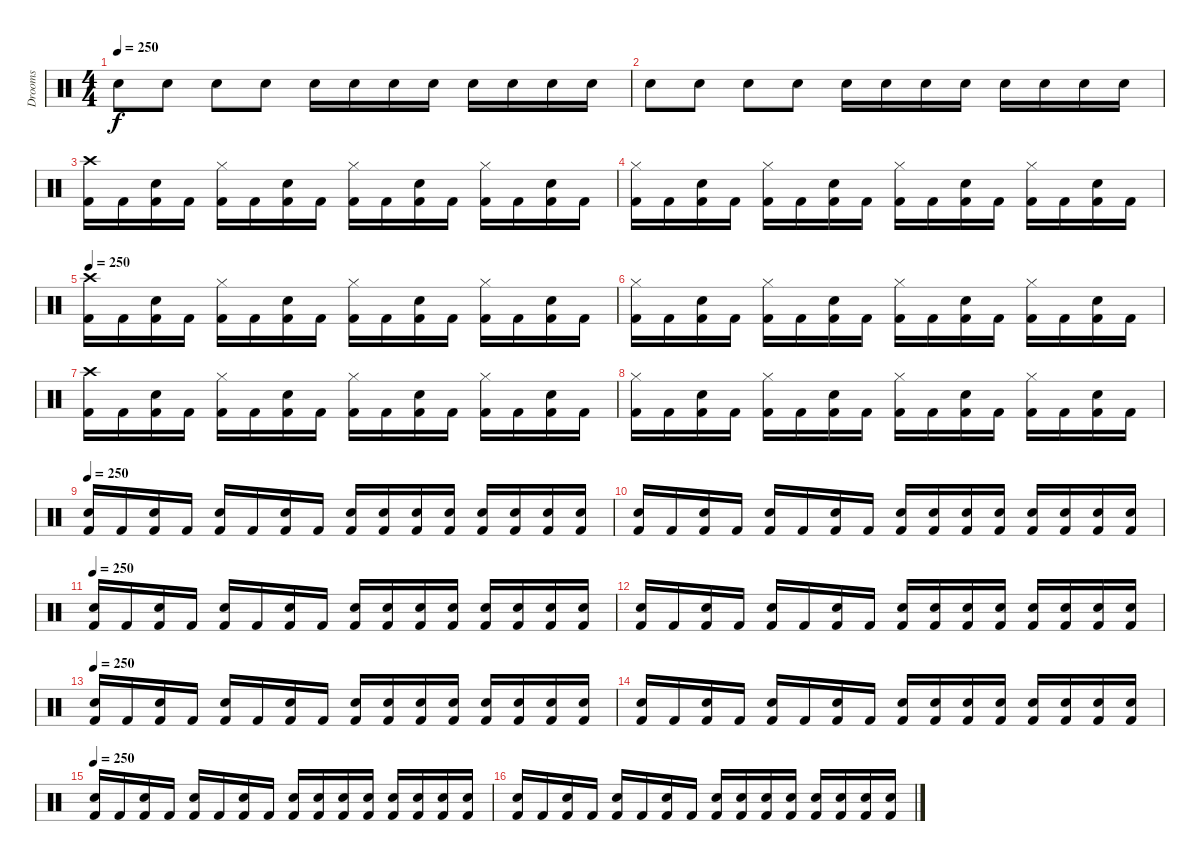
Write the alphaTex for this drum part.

\track ("Drooms" "Drooms") {instrument percussion}
\staff {score}
\articulation defaults
\ts (4 4)
\tempo 250
\clef neutral
\ks c "Snare (hit) 2".8{dy f} "Snare (hit) 2".8 "Snare (hit) 2".8 "Snare (hit) 2".8 "Snare (hit) 2".16 "Snare (hit) 2".16 "Snare (hit) 2".16 "Snare (hit) 2".16 "Snare (hit) 2".16 "Snare (hit) 2".16 "Snare (hit) 2".16 "Snare (hit) 2".16
|
"Snare (hit) 2".8 "Snare (hit) 2".8 "Snare (hit) 2".8 "Snare (hit) 2".8 "Snare (hit) 2".16 "Snare (hit) 2".16 "Snare (hit) 2".16 "Snare (hit) 2".16 "Snare (hit) 2".16 "Snare (hit) 2".16 "Snare (hit) 2".16 "Snare (hit) 2".16 |
("Kick (hit) 2" "Crash high (hit)").16 "Kick (hit) 2".16 ("Kick (hit) 2" "Snare (hit) 2").16 "Kick (hit) 2".16 ("Kick (hit) 2" "Hi-Hat (closed)").16 "Kick (hit) 2".16 ("Kick (hit) 2" "Snare (hit) 2").16 "Kick (hit) 2".16 ("Kick (hit) 2" "Hi-Hat (closed)").16 "Kick (hit) 2".16 ("Kick (hit) 2" "Snare (hit) 2").16 "Kick (hit) 2".16 ("Kick (hit) 2" "Hi-Hat (closed)").16 "Kick (hit) 2".16 ("Kick (hit) 2" "Snare (hit) 2").16 "Kick (hit) 2".16 |
("Hi-Hat (closed)" "Kick (hit) 2").16 "Kick (hit) 2".16 ("Snare (hit) 2" "Kick (hit) 2").16 "Kick (hit) 2".16 ("Hi-Hat (closed)" "Kick (hit) 2").16 "Kick (hit) 2".16 ("Snare (hit) 2" "Kick (hit) 2").16 "Kick (hit) 2".16 ("Hi-Hat (closed)" "Kick (hit) 2").16 "Kick (hit) 2".16 ("Snare (hit) 2" "Kick (hit) 2").16 "Kick (hit) 2".16 ("Hi-Hat (closed)" "Kick (hit) 2").16 "Kick (hit) 2".16 ("Snare (hit) 2" "Kick (hit) 2").16 "Kick (hit) 2".16 |
\tempo 250
("Kick (hit) 2" "Crash high (hit)").16 "Kick (hit) 2".16 ("Kick (hit) 2" "Snare (hit) 2").16 "Kick (hit) 2".16 ("Kick (hit) 2" "Hi-Hat (closed)").16 "Kick (hit) 2".16 ("Kick (hit) 2" "Snare (hit) 2").16 "Kick (hit) 2".16 ("Kick (hit) 2" "Hi-Hat (closed)").16 "Kick (hit) 2".16 ("Kick (hit) 2" "Snare (hit) 2").16 "Kick (hit) 2".16 ("Kick (hit) 2" "Hi-Hat (closed)").16 "Kick (hit) 2".16 ("Kick (hit) 2" "Snare (hit) 2").16 "Kick (hit) 2".16 |
("Hi-Hat (closed)" "Kick (hit) 2").16 "Kick (hit) 2".16 ("Snare (hit) 2" "Kick (hit) 2").16 "Kick (hit) 2".16 ("Hi-Hat (closed)" "Kick (hit) 2").16 "Kick (hit) 2".16 ("Snare (hit) 2" "Kick (hit) 2").16 "Kick (hit) 2".16 ("Hi-Hat (closed)" "Kick (hit) 2").16 "Kick (hit) 2".16 ("Snare (hit) 2" "Kick (hit) 2").16 "Kick (hit) 2".16 ("Hi-Hat (closed)" "Kick (hit) 2").16 "Kick (hit) 2".16 ("Snare (hit) 2" "Kick (hit) 2").16 "Kick (hit) 2".16 |
("Kick (hit) 2" "Crash high (hit)").16 "Kick (hit) 2".16 ("Kick (hit) 2" "Snare (hit) 2").16 "Kick (hit) 2".16 ("Kick (hit) 2" "Hi-Hat (closed)").16 "Kick (hit) 2".16 ("Kick (hit) 2" "Snare (hit) 2").16 "Kick (hit) 2".16 ("Kick (hit) 2" "Hi-Hat (closed)").16 "Kick (hit) 2".16 ("Kick (hit) 2" "Snare (hit) 2").16 "Kick (hit) 2".16 ("Kick (hit) 2" "Hi-Hat (closed)").16 "Kick (hit) 2".16 ("Kick (hit) 2" "Snare (hit) 2").16 "Kick (hit) 2".16 |
("Hi-Hat (closed)" "Kick (hit) 2").16 "Kick (hit) 2".16 ("Snare (hit) 2" "Kick (hit) 2").16 "Kick (hit) 2".16 ("Hi-Hat (closed)" "Kick (hit) 2").16 "Kick (hit) 2".16 ("Snare (hit) 2" "Kick (hit) 2").16 "Kick (hit) 2".16 ("Hi-Hat (closed)" "Kick (hit) 2").16 "Kick (hit) 2".16 ("Snare (hit) 2" "Kick (hit) 2").16 "Kick (hit) 2".16 ("Hi-Hat (closed)" "Kick (hit) 2").16 "Kick (hit) 2".16 ("Snare (hit) 2" "Kick (hit) 2").16 "Kick (hit) 2".16 |
\tempo 250
("Kick (hit) 2" "Snare (hit) 2").16 "Kick (hit) 2".16 ("Kick (hit) 2" "Snare (hit) 2").16 "Kick (hit) 2".16 ("Kick (hit) 2" "Snare (hit) 2").16 "Kick (hit) 2".16 ("Kick (hit) 2" "Snare (hit) 2").16 "Kick (hit) 2".16 ("Kick (hit) 2" "Snare (hit) 2").16 ("Kick (hit) 2" "Snare (hit) 2").16 ("Kick (hit) 2" "Snare (hit) 2").16 ("Kick (hit) 2" "Snare (hit) 2").16 ("Kick (hit) 2" "Snare (hit) 2").16 ("Kick (hit) 2" "Snare (hit) 2").16 ("Kick (hit) 2" "Snare (hit) 2").16 ("Kick (hit) 2" "Snare (hit) 2").16 |
("Kick (hit) 2" "Snare (hit) 2").16 "Kick (hit) 2".16 ("Kick (hit) 2" "Snare (hit) 2").16 "Kick (hit) 2".16 ("Kick (hit) 2" "Snare (hit) 2").16 "Kick (hit) 2".16 ("Kick (hit) 2" "Snare (hit) 2").16 "Kick (hit) 2".16 ("Kick (hit) 2" "Snare (hit) 2").16 ("Kick (hit) 2" "Snare (hit) 2").16 ("Kick (hit) 2" "Snare (hit) 2").16 ("Kick (hit) 2" "Snare (hit) 2").16 ("Kick (hit) 2" "Snare (hit) 2").16 ("Kick (hit) 2" "Snare (hit) 2").16 ("Kick (hit) 2" "Snare (hit) 2").16 ("Kick (hit) 2" "Snare (hit) 2").16 |
\tempo 250
("Kick (hit) 2" "Snare (hit) 2").16 "Kick (hit) 2".16 ("Kick (hit) 2" "Snare (hit) 2").16 "Kick (hit) 2".16 ("Kick (hit) 2" "Snare (hit) 2").16 "Kick (hit) 2".16 ("Kick (hit) 2" "Snare (hit) 2").16 "Kick (hit) 2".16 ("Kick (hit) 2" "Snare (hit) 2").16 ("Kick (hit) 2" "Snare (hit) 2").16 ("Kick (hit) 2" "Snare (hit) 2").16 ("Kick (hit) 2" "Snare (hit) 2").16 ("Kick (hit) 2" "Snare (hit) 2").16 ("Kick (hit) 2" "Snare (hit) 2").16 ("Kick (hit) 2" "Snare (hit) 2").16 ("Kick (hit) 2" "Snare (hit) 2").16 |
("Kick (hit) 2" "Snare (hit) 2").16 "Kick (hit) 2".16 ("Kick (hit) 2" "Snare (hit) 2").16 "Kick (hit) 2".16 ("Kick (hit) 2" "Snare (hit) 2").16 "Kick (hit) 2".16 ("Kick (hit) 2" "Snare (hit) 2").16 "Kick (hit) 2".16 ("Kick (hit) 2" "Snare (hit) 2").16 ("Kick (hit) 2" "Snare (hit) 2").16 ("Kick (hit) 2" "Snare (hit) 2").16 ("Kick (hit) 2" "Snare (hit) 2").16 ("Kick (hit) 2" "Snare (hit) 2").16 ("Kick (hit) 2" "Snare (hit) 2").16 ("Kick (hit) 2" "Snare (hit) 2").16 ("Kick (hit) 2" "Snare (hit) 2").16 |
\tempo 250
("Kick (hit) 2" "Snare (hit) 2").16 "Kick (hit) 2".16 ("Kick (hit) 2" "Snare (hit) 2").16 "Kick (hit) 2".16 ("Kick (hit) 2" "Snare (hit) 2").16 "Kick (hit) 2".16 ("Kick (hit) 2" "Snare (hit) 2").16 "Kick (hit) 2".16 ("Kick (hit) 2" "Snare (hit) 2").16 ("Kick (hit) 2" "Snare (hit) 2").16 ("Kick (hit) 2" "Snare (hit) 2").16 ("Kick (hit) 2" "Snare (hit) 2").16 ("Kick (hit) 2" "Snare (hit) 2").16 ("Kick (hit) 2" "Snare (hit) 2").16 ("Kick (hit) 2" "Snare (hit) 2").16 ("Kick (hit) 2" "Snare (hit) 2").16 |
("Kick (hit) 2" "Snare (hit) 2").16 "Kick (hit) 2".16 ("Kick (hit) 2" "Snare (hit) 2").16 "Kick (hit) 2".16 ("Kick (hit) 2" "Snare (hit) 2").16 "Kick (hit) 2".16 ("Kick (hit) 2" "Snare (hit) 2").16 "Kick (hit) 2".16 ("Kick (hit) 2" "Snare (hit) 2").16 ("Kick (hit) 2" "Snare (hit) 2").16 ("Kick (hit) 2" "Snare (hit) 2").16 ("Kick (hit) 2" "Snare (hit) 2").16 ("Kick (hit) 2" "Snare (hit) 2").16 ("Kick (hit) 2" "Snare (hit) 2").16 ("Kick (hit) 2" "Snare (hit) 2").16 ("Kick (hit) 2" "Snare (hit) 2").16 |
\tempo 250
("Kick (hit) 2" "Snare (hit) 2").16 "Kick (hit) 2".16 ("Kick (hit) 2" "Snare (hit) 2").16 "Kick (hit) 2".16 ("Kick (hit) 2" "Snare (hit) 2").16 "Kick (hit) 2".16 ("Kick (hit) 2" "Snare (hit) 2").16 "Kick (hit) 2".16 ("Kick (hit) 2" "Snare (hit) 2").16 ("Kick (hit) 2" "Snare (hit) 2").16 ("Kick (hit) 2" "Snare (hit) 2").16 ("Kick (hit) 2" "Snare (hit) 2").16 ("Kick (hit) 2" "Snare (hit) 2").16 ("Kick (hit) 2" "Snare (hit) 2").16 ("Kick (hit) 2" "Snare (hit) 2").16 ("Kick (hit) 2" "Snare (hit) 2").16 |
("Kick (hit) 2" "Snare (hit) 2").16 "Kick (hit) 2".16 ("Kick (hit) 2" "Snare (hit) 2").16 "Kick (hit) 2".16 ("Kick (hit) 2" "Snare (hit) 2").16 "Kick (hit) 2".16 ("Kick (hit) 2" "Snare (hit) 2").16 "Kick (hit) 2".16 ("Kick (hit) 2" "Snare (hit) 2").16 ("Kick (hit) 2" "Snare (hit) 2").16 ("Kick (hit) 2" "Snare (hit) 2").16 ("Kick (hit) 2" "Snare (hit) 2").16 ("Kick (hit) 2" "Snare (hit) 2").16 ("Kick (hit) 2" "Snare (hit) 2").16 ("Kick (hit) 2" "Snare (hit) 2").16 ("Kick (hit) 2" "Snare (hit) 2").16
